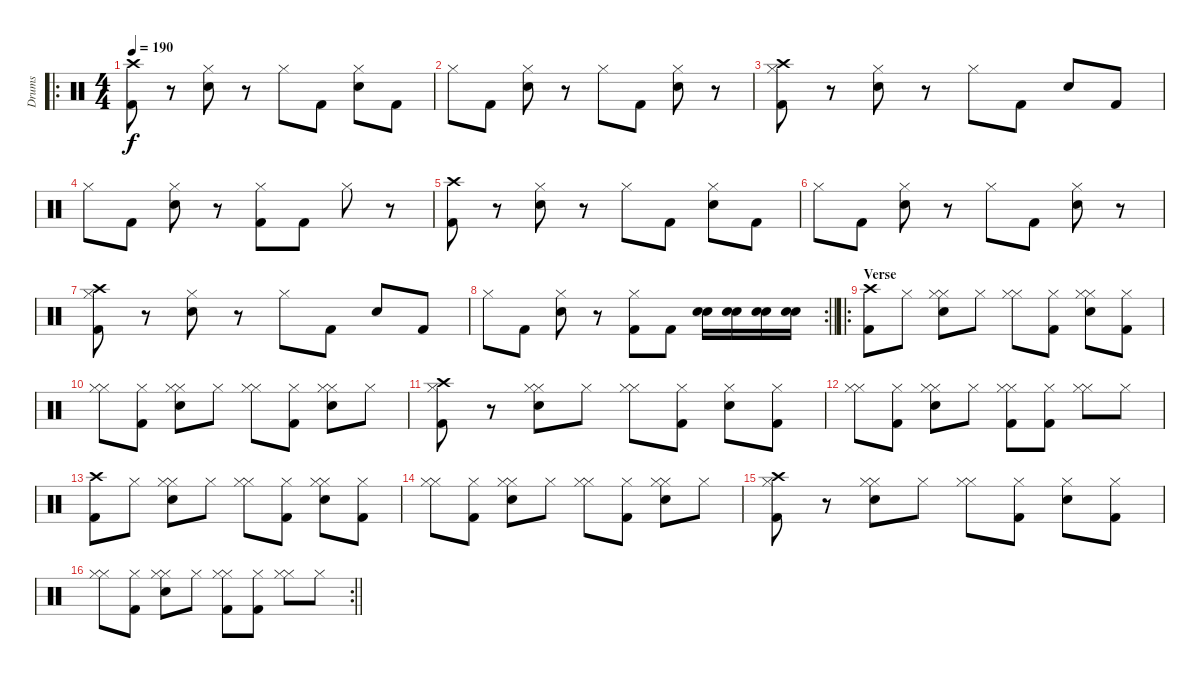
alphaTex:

\track ("Drums" "Drums") {instrument percussion}
\staff {score}
\articulation defaults
\ro
\ts (4 4)
\tempo 190
\clef neutral
\ks c
("Crash high (hit)" "Kick (hit) 2").8{dy f} r.8 ("Hi-Hat (closed)" "Snare (hit) 2").8 r.8 "Hi-Hat (closed)".8 "Kick (hit) 2".8 ("Hi-Hat (closed)" "Snare (hit) 2").8 "Kick (hit) 2".8 |
"Hi-Hat (closed)".8 "Kick (hit) 2".8 ("Hi-Hat (closed)" "Snare (hit) 2").8 r.8 "Hi-Hat (closed)".8 "Kick (hit) 2".8 ("Hi-Hat (closed)" "Snare (hit) 2").8 r.8 |
("Hi-Hat (closed)" "Kick (hit) 2" "Crash high (hit)").8 r.8 ("Hi-Hat (closed)" "Snare (hit) 2").8 r.8 "Hi-Hat (closed)".8 "Kick (hit) 2".8 "Snare (hit) 2".8 "Kick (hit) 2".8 |
"Hi-Hat (closed)".8 "Kick (hit) 2".8 ("Hi-Hat (closed)" "Snare (hit) 2").8 r.8 ("Hi-Hat (closed)" "Kick (hit) 2").8 "Kick (hit) 2".8 "Hi-Hat (closed)".8 r.8 |
("Crash high (hit)" "Kick (hit) 2").8 r.8 ("Hi-Hat (closed)" "Snare (hit) 2").8 r.8 "Hi-Hat (closed)".8 "Kick (hit) 2".8 ("Hi-Hat (closed)" "Snare (hit) 2").8 "Kick (hit) 2".8 |
"Hi-Hat (closed)".8 "Kick (hit) 2".8 ("Hi-Hat (closed)" "Snare (hit) 2").8 r.8 "Hi-Hat (closed)".8 "Kick (hit) 2".8 ("Hi-Hat (closed)" "Snare (hit) 2").8 r.8 |
("Hi-Hat (closed)" "Kick (hit) 2" "Crash high (hit)").8 r.8 ("Hi-Hat (closed)" "Snare (hit) 2").8 r.8 "Hi-Hat (closed)".8 "Kick (hit) 2".8 "Snare (hit) 2".8 "Kick (hit) 2".8 |
\rc 2
\barLineRight lightlight "Hi-Hat (closed)".8 "Kick (hit) 2".8
("Hi-Hat (closed)" "Snare (hit) 2").8 r.8 ("Hi-Hat (closed)" "Kick (hit) 2").8 "Kick (hit) 2".8 ("Electric Snare (hit)" "Electric Snare (hit)").16 ("Electric Snare (hit)" "Electric Snare (hit)").16 ("Electric Snare (hit)" "Electric Snare (hit)").16 ("Electric Snare (hit)" "Electric Snare (hit)").16 |
\ro
\section ("" "Verse")
("Crash high (hit)" "Kick (hit) 2").8 "Hi-Hat (closed)".8 ("Hi-Hat (closed)" "Snare (hit) 2" "Hi-Hat (closed)").8 "Hi-Hat (closed)".8 ("Hi-Hat (closed)" "Hi-Hat (closed)").8 ("Kick (hit) 2" "Hi-Hat (closed)").8 ("Hi-Hat (closed)" "Snare (hit) 2" "Hi-Hat (closed)").8 ("Kick (hit) 2" "Hi-Hat (closed)").8 |
("Hi-Hat (closed)" "Hi-Hat (closed)").8 ("Kick (hit) 2" "Hi-Hat (closed)").8 ("Hi-Hat (closed)" "Snare (hit) 2" "Hi-Hat (closed)").8 "Hi-Hat (closed)".8 ("Hi-Hat (closed)" "Hi-Hat (closed)").8 ("Kick (hit) 2" "Hi-Hat (closed)").8 ("Hi-Hat (closed)" "Snare (hit) 2" "Hi-Hat (closed)").8 "Hi-Hat (closed)".8 |
("Hi-Hat (closed)" "Kick (hit) 2" "Crash high (hit)").8 r.8 ("Hi-Hat (closed)" "Snare (hit) 2" "Hi-Hat (closed)").8 "Hi-Hat (closed)".8 ("Hi-Hat (closed)" "Hi-Hat (closed)").8 ("Kick (hit) 2" "Hi-Hat (closed)").8 ("Snare (hit) 2" "Hi-Hat (closed)").8 ("Kick (hit) 2" "Hi-Hat (closed)").8 |
("Hi-Hat (closed)" "Hi-Hat (closed)").8 ("Kick (hit) 2" "Hi-Hat (closed)").8 ("Hi-Hat (closed)" "Snare (hit) 2" "Hi-Hat (closed)").8 "Hi-Hat (closed)".8 ("Hi-Hat (closed)" "Kick (hit) 2" "Hi-Hat (closed)").8 ("Kick (hit) 2" "Hi-Hat (closed)").8 ("Hi-Hat (closed)" "Hi-Hat (closed)").8 "Hi-Hat (closed)".8 |
("Crash high (hit)" "Kick (hit) 2").8 "Hi-Hat (closed)".8 ("Hi-Hat (closed)" "Snare (hit) 2" "Hi-Hat (closed)").8 "Hi-Hat (closed)".8 ("Hi-Hat (closed)" "Hi-Hat (closed)").8 ("Kick (hit) 2" "Hi-Hat (closed)").8 ("Hi-Hat (closed)" "Snare (hit) 2" "Hi-Hat (closed)").8 ("Kick (hit) 2" "Hi-Hat (closed)").8 |
("Hi-Hat (closed)" "Hi-Hat (closed)").8 ("Kick (hit) 2" "Hi-Hat (closed)").8 ("Hi-Hat (closed)" "Snare (hit) 2" "Hi-Hat (closed)").8 "Hi-Hat (closed)".8 ("Hi-Hat (closed)" "Hi-Hat (closed)").8 ("Kick (hit) 2" "Hi-Hat (closed)").8 ("Hi-Hat (closed)" "Snare (hit) 2" "Hi-Hat (closed)").8 "Hi-Hat (closed)".8 |
("Hi-Hat (closed)" "Kick (hit) 2" "Crash high (hit)").8 r.8 ("Hi-Hat (closed)" "Snare (hit) 2" "Hi-Hat (closed)").8 "Hi-Hat (closed)".8 ("Hi-Hat (closed)" "Hi-Hat (closed)").8 ("Kick (hit) 2" "Hi-Hat (closed)").8 ("Snare (hit) 2" "Hi-Hat (closed)").8 ("Kick (hit) 2" "Hi-Hat (closed)").8 |
\rc 2
\barLineRight lightlight
("Hi-Hat (closed)" "Hi-Hat (closed)").8 ("Kick (hit) 2" "Hi-Hat (closed)").8 ("Hi-Hat (closed)" "Snare (hit) 2" "Hi-Hat (closed)").8 "Hi-Hat (closed)".8 ("Hi-Hat (closed)" "Kick (hit) 2" "Hi-Hat (closed)").8 ("Kick (hit) 2" "Hi-Hat (closed)").8 ("Hi-Hat (closed)" "Hi-Hat (closed)").8 "Hi-Hat (closed)".8
